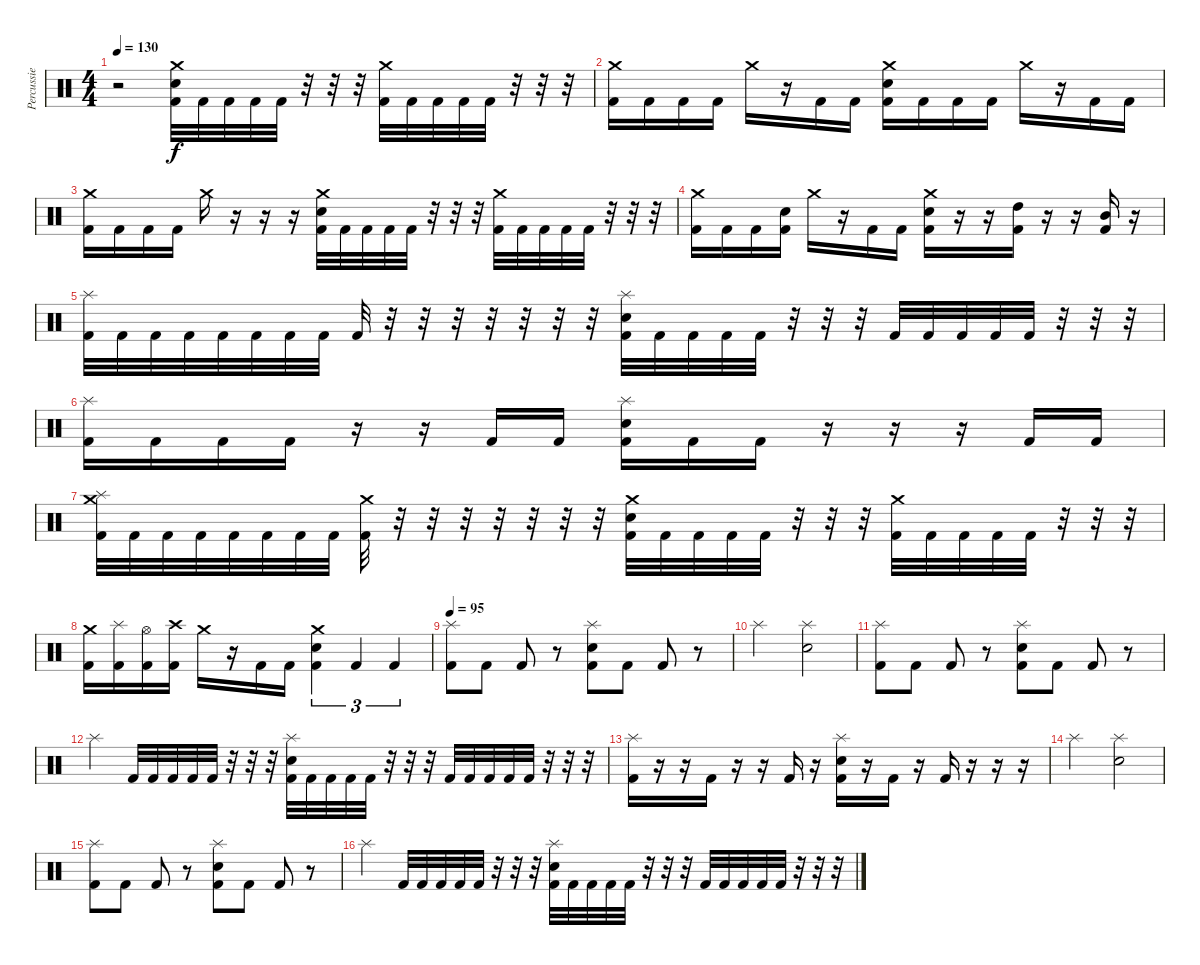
\track ("Percussie" "Percussie") {instrument percussion}
\staff {score}
\articulation defaults
\ts (4 4)
\tempo 130
\clef neutral
\ks c
r.2{dy f} ("Crash medium (hit)" "Electric Snare (hit)" "Kick (hit) 2").32 "Kick (hit) 2".32 "Kick (hit) 2".32 "Kick (hit) 2".32 "Kick (hit) 2".32 r.32 r.32 r.32 ("Crash medium (hit)" "Kick (hit) 2").32 "Kick (hit) 2".32 "Kick (hit) 2".32 "Kick (hit) 2".32 "Kick (hit) 2".32 r.32 r.32 r.32 |
("Crash medium (hit)" "Kick (hit) 2").16 "Kick (hit) 2".16 "Kick (hit) 2".16 "Kick (hit) 2".16 "Crash medium (hit)".16 r.16 "Kick (hit) 2".16 "Kick (hit) 2".16 ("Crash medium (hit)" "Electric Snare (hit)" "Kick (hit) 2").16 "Kick (hit) 2".16 "Kick (hit) 2".16 "Kick (hit) 2".16 "Crash medium (hit)".16 r.16 "Kick (hit) 2".16 "Kick (hit) 2".16 |
("Crash medium (hit)" "Kick (hit) 2").16 "Kick (hit) 2".16 "Kick (hit) 2".16 "Kick (hit) 2".16 "Crash medium (hit)".16 r.16 r.16 r.16 ("Crash medium (hit)" "Electric Snare (hit)" "Kick (hit) 2").32 "Kick (hit) 2".32 "Kick (hit) 2".32 "Kick (hit) 2".32 "Kick (hit) 2".32 r.32 r.32 r.32 ("Crash medium (hit)" "Kick (hit) 2").32 "Kick (hit) 2".32 "Kick (hit) 2".32 "Kick (hit) 2".32 "Kick (hit) 2".32 r.32 r.32 r.32 |
("Crash medium (hit)" "Kick (hit) 2").16 "Kick (hit) 2".16 "Kick (hit) 2".16 ("Electric Snare (hit)" "Kick (hit) 2").16 "Crash medium (hit)".16 r.16 "Kick (hit) 2".16 "Kick (hit) 2".16 ("Crash medium (hit)" "Electric Snare (hit)" "Kick (hit) 2").16 r.16 r.16 ("High Tom (hit)" "Kick (hit) 2").16 r.16 r.16 ("Mid Tom (hit)" "Kick (hit) 2").16 r.16 |
("Splash (hit)" "Kick (hit) 2").32 "Kick (hit) 2".32 "Kick (hit) 2".32 "Kick (hit) 2".32 "Kick (hit) 2".32 "Kick (hit) 2".32 "Kick (hit) 2".32 "Kick (hit) 2".32 "Kick (hit) 2".32 r.32 r.32 r.32 r.32 r.32 r.32 r.32 ("Splash (hit)" "Electric Snare (hit)" "Kick (hit) 2").32 "Kick (hit) 2".32 "Kick (hit) 2".32 "Kick (hit) 2".32 "Kick (hit) 2".32 r.32 r.32 r.32 "Kick (hit) 2".32 "Kick (hit) 2".32 "Kick (hit) 2".32 "Kick (hit) 2".32 "Kick (hit) 2".32 r.32 r.32 r.32 |
("Splash (hit)" "Kick (hit) 2").16 "Kick (hit) 2".16 "Kick (hit) 2".16 "Kick (hit) 2".16 r.16 r.16 "Kick (hit) 2".16 "Kick (hit) 2".16 ("Splash (hit)" "Electric Snare (hit)" "Kick (hit) 2").16 "Kick (hit) 2".16 "Kick (hit) 2".16 r.16 r.16 r.16 "Kick (hit) 2".16 "Kick (hit) 2".16 |
("Splash (hit)" "Crash medium (hit)" "Kick (hit) 2").32 "Kick (hit) 2".32 "Kick (hit) 2".32 "Kick (hit) 2".32 "Kick (hit) 2".32 "Kick (hit) 2".32 "Kick (hit) 2".32 "Kick (hit) 2".32 ("Crash medium (hit)" "Kick (hit) 2").32 r.32 r.32 r.32 r.32 r.32 r.32 r.32 ("Crash medium (hit)" "Electric Snare (hit)" "Kick (hit) 2").32 "Kick (hit) 2".32 "Kick (hit) 2".32 "Kick (hit) 2".32 "Kick (hit) 2".32 r.32 r.32 r.32 ("Crash medium (hit)" "Kick (hit) 2").32 "Kick (hit) 2".32 "Kick (hit) 2".32 "Kick (hit) 2".32 "Kick (hit) 2".32 r.32 r.32 r.32 |
("Crash medium (hit)" "Kick (hit) 2").16 ("Splash (hit)" "Kick (hit) 2").16 ("Hi-Hat (open)" "Kick (hit) 2").16 ("Crash high (hit)" "Kick (hit) 2").16 "Crash medium (hit)".16 r.16 "Kick (hit) 2".16 "Kick (hit) 2".16 ("Crash medium (hit)" "Electric Snare (hit)" "Kick (hit) 2").4{tu (3 2)} "Kick (hit) 2".4{tu (3 2)} "Kick (hit) 2".4{tu (3 2)} |
\tempo 95
("Splash (hit)" "Kick (hit) 2").8 "Kick (hit) 2".8 "Kick (hit) 2".8 r.8 ("Splash (hit)" "Electric Snare (hit)" "Kick (hit) 2").8 "Kick (hit) 2".8 "Kick (hit) 2".8 r.8 |
"Splash (hit)".2 ("Splash (hit)" "Electric Snare (hit)").2 |
("Splash (hit)" "Kick (hit) 2").8 "Kick (hit) 2".8 "Kick (hit) 2".8 r.8 ("Splash (hit)" "Electric Snare (hit)" "Kick (hit) 2").8 "Kick (hit) 2".8 "Kick (hit) 2".8 r.8 |
"Splash (hit)".4 "Kick (hit) 2".32 "Kick (hit) 2".32 "Kick (hit) 2".32 "Kick (hit) 2".32 "Kick (hit) 2".32 r.32 r.32 r.32 ("Splash (hit)" "Electric Snare (hit)" "Kick (hit) 2").32 "Kick (hit) 2".32 "Kick (hit) 2".32 "Kick (hit) 2".32 "Kick (hit) 2".32 r.32 r.32 r.32 "Kick (hit) 2".32 "Kick (hit) 2".32 "Kick (hit) 2".32 "Kick (hit) 2".32 "Kick (hit) 2".32 r.32 r.32 r.32 |
("Splash (hit)" "Kick (hit) 2").16 r.16 r.16 "Kick (hit) 2".16 r.16 r.16 "Kick (hit) 2".16 r.16 ("Splash (hit)" "Electric Snare (hit)" "Kick (hit) 2").16 r.16 "Kick (hit) 2".16 r.16 "Kick (hit) 2".16 r.16 r.16 r.16 |
"Splash (hit)".2 ("Splash (hit)" "Electric Snare (hit)").2 |
("Splash (hit)" "Kick (hit) 2").8 "Kick (hit) 2".8 "Kick (hit) 2".8 r.8 ("Splash (hit)" "Electric Snare (hit)" "Kick (hit) 2").8 "Kick (hit) 2".8 "Kick (hit) 2".8 r.8 |
"Splash (hit)".4 "Kick (hit) 2".32 "Kick (hit) 2".32 "Kick (hit) 2".32 "Kick (hit) 2".32 "Kick (hit) 2".32 r.32 r.32 r.32 ("Splash (hit)" "Electric Snare (hit)" "Kick (hit) 2").32 "Kick (hit) 2".32 "Kick (hit) 2".32 "Kick (hit) 2".32 "Kick (hit) 2".32 r.32 r.32 r.32 "Kick (hit) 2".32 "Kick (hit) 2".32 "Kick (hit) 2".32 "Kick (hit) 2".32 "Kick (hit) 2".32 r.32 r.32 r.32
